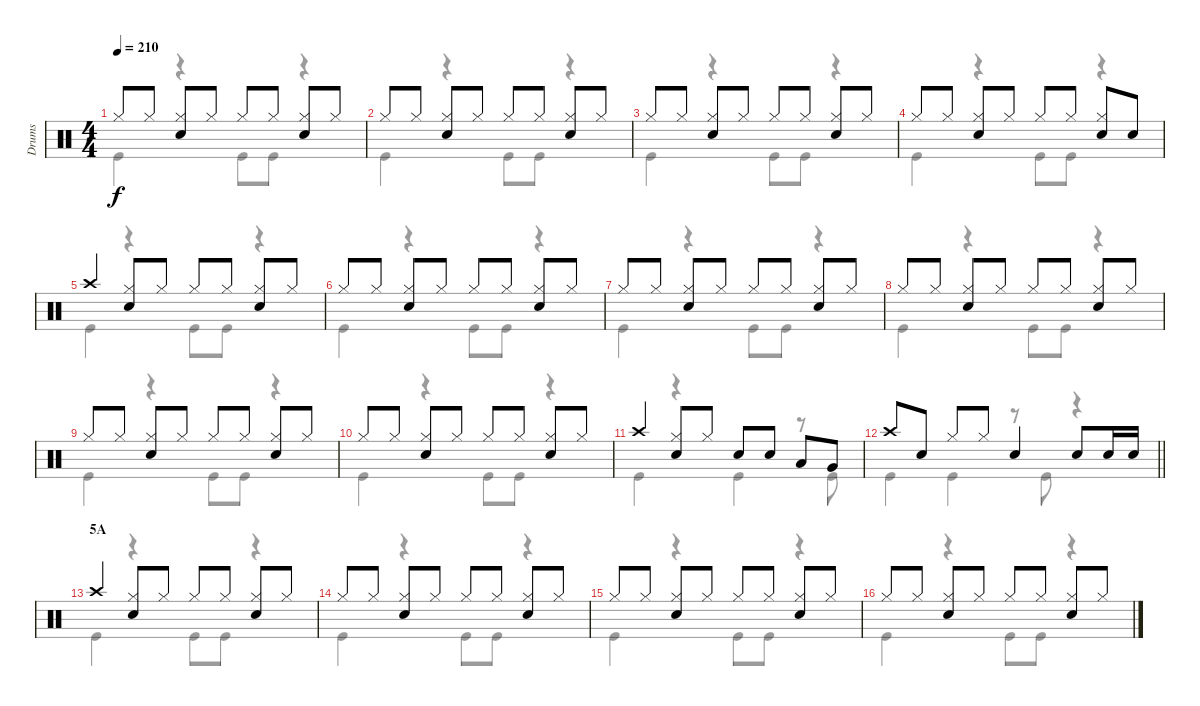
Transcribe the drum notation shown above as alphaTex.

\track ("Drums" "Drums") {instrument percussion}
\staff {score}
\articulation defaults
\voice
\ts (4 4)
\tempo 210
\clef neutral
\ks c "Hi-Hat (closed)".8{dy f} "Hi-Hat (closed)".8
("Hi-Hat (closed)" "Snare (hit) 2").8 "Hi-Hat (closed)".8 "Hi-Hat (closed)".8 "Hi-Hat (closed)".8 ("Hi-Hat (closed)" "Snare (hit) 2").8 "Hi-Hat (closed)".8 |
"Hi-Hat (closed)".8 "Hi-Hat (closed)".8 ("Hi-Hat (closed)" "Snare (hit) 2").8 "Hi-Hat (closed)".8 "Hi-Hat (closed)".8 "Hi-Hat (closed)".8 ("Hi-Hat (closed)" "Snare (hit) 2").8 "Hi-Hat (closed)".8 |
"Hi-Hat (closed)".8 "Hi-Hat (closed)".8 ("Hi-Hat (closed)" "Snare (hit) 2").8 "Hi-Hat (closed)".8 "Hi-Hat (closed)".8 "Hi-Hat (closed)".8 ("Hi-Hat (closed)" "Snare (hit) 2").8 "Hi-Hat (closed)".8 |
"Hi-Hat (closed)".8 "Hi-Hat (closed)".8 ("Hi-Hat (closed)" "Snare (hit) 2").8 "Hi-Hat (closed)".8 "Hi-Hat (closed)".8 "Hi-Hat (closed)".8 ("Hi-Hat (closed)" "Snare (hit) 2").8 "Snare (hit) 2".8 |
"Crash high (hit)".4 ("Hi-Hat (closed)" "Snare (hit) 2").8 "Hi-Hat (closed)".8 "Hi-Hat (closed)".8 "Hi-Hat (closed)".8 ("Hi-Hat (closed)" "Snare (hit) 2").8 "Hi-Hat (closed)".8 |
"Hi-Hat (closed)".8 "Hi-Hat (closed)".8 ("Hi-Hat (closed)" "Snare (hit) 2").8 "Hi-Hat (closed)".8 "Hi-Hat (closed)".8 "Hi-Hat (closed)".8 ("Hi-Hat (closed)" "Snare (hit) 2").8 "Hi-Hat (closed)".8 |
"Hi-Hat (closed)".8 "Hi-Hat (closed)".8 ("Hi-Hat (closed)" "Snare (hit) 2").8 "Hi-Hat (closed)".8 "Hi-Hat (closed)".8 "Hi-Hat (closed)".8 ("Hi-Hat (closed)" "Snare (hit) 2").8 "Hi-Hat (closed)".8 |
"Hi-Hat (closed)".8 "Hi-Hat (closed)".8 ("Hi-Hat (closed)" "Snare (hit) 2").8 "Hi-Hat (closed)".8 "Hi-Hat (closed)".8 "Hi-Hat (closed)".8 ("Hi-Hat (closed)" "Snare (hit) 2").8 "Hi-Hat (closed)".8 |
"Hi-Hat (closed)".8 "Hi-Hat (closed)".8 ("Hi-Hat (closed)" "Snare (hit) 2").8 "Hi-Hat (closed)".8 "Hi-Hat (closed)".8 "Hi-Hat (closed)".8 ("Hi-Hat (closed)" "Snare (hit) 2").8 "Hi-Hat (closed)".8 |
"Hi-Hat (closed)".8 "Hi-Hat (closed)".8 ("Hi-Hat (closed)" "Snare (hit) 2").8 "Hi-Hat (closed)".8 "Hi-Hat (closed)".8 "Hi-Hat (closed)".8 ("Hi-Hat (closed)" "Snare (hit) 2").8 "Hi-Hat (closed)".8 |
"Crash high (hit)".4 ("Hi-Hat (closed)" "Snare (hit) 2").8 "Hi-Hat (closed)".8 "Snare (hit) 2".8 "Snare (hit) 2".8 "Low Tom (hit)".8 "Very Low Tom (hit)".8 |
\barLineRight lightlight "Crash high (hit)".8 "Snare (hit) 2".8 "Hi-Hat (closed)".8 "Hi-Hat (closed)".8 "Snare (hit) 2".4 "Snare (hit) 2".8 "Snare (hit) 2".16 "Snare (hit) 2".16
|
\section ("" "5A")
"Crash high (hit)".4 ("Hi-Hat (closed)" "Snare (hit) 2").8 "Hi-Hat (closed)".8 "Hi-Hat (closed)".8 "Hi-Hat (closed)".8 ("Hi-Hat (closed)" "Snare (hit) 2").8 "Hi-Hat (closed)".8 |
"Hi-Hat (closed)".8 "Hi-Hat (closed)".8 ("Hi-Hat (closed)" "Snare (hit) 2").8 "Hi-Hat (closed)".8 "Hi-Hat (closed)".8 "Hi-Hat (closed)".8 ("Hi-Hat (closed)" "Snare (hit) 2").8 "Hi-Hat (closed)".8 |
"Hi-Hat (closed)".8 "Hi-Hat (closed)".8 ("Hi-Hat (closed)" "Snare (hit) 2").8 "Hi-Hat (closed)".8 "Hi-Hat (closed)".8 "Hi-Hat (closed)".8 ("Hi-Hat (closed)" "Snare (hit) 2").8 "Hi-Hat (closed)".8 |
"Hi-Hat (closed)".8 "Hi-Hat (closed)".8 ("Hi-Hat (closed)" "Snare (hit) 2").8 "Hi-Hat (closed)".8 "Hi-Hat (closed)".8 "Hi-Hat (closed)".8 ("Hi-Hat (closed)" "Snare (hit) 2").8 "Hi-Hat (closed)".8
\voice
\clef neutral
\ottava regular
\simile none
\ks c "Kick (hit)".4{dy f}
r.4 "Kick (hit)".8 "Kick (hit)".8 r.4 |
"Kick (hit)".4 r.4 "Kick (hit)".8 "Kick (hit)".8 r.4 |
"Kick (hit)".4 r.4 "Kick (hit)".8 "Kick (hit)".8 r.4 |
"Kick (hit)".4 r.4 "Kick (hit)".8 "Kick (hit)".8 r.4 |
"Kick (hit)".4 r.4 "Kick (hit)".8 "Kick (hit)".8 r.4 |
"Kick (hit)".4 r.4 "Kick (hit)".8 "Kick (hit)".8 r.4 |
"Kick (hit)".4 r.4 "Kick (hit)".8 "Kick (hit)".8 r.4 |
"Kick (hit)".4 r.4 "Kick (hit)".8 "Kick (hit)".8 r.4 |
"Kick (hit)".4 r.4 "Kick (hit)".8 "Kick (hit)".8 r.4 |
"Kick (hit)".4 r.4 "Kick (hit)".8 "Kick (hit)".8 r.4 |
"Kick (hit)".4 r.4 "Kick (hit)".4 r.8 "Kick (hit)".8 |
\barLineRight lightlight "Kick (hit)".4 "Kick (hit)".4
r.8 "Kick (hit)".8 r.4 |
"Kick (hit)".4 r.4 "Kick (hit)".8 "Kick (hit)".8 r.4 |
"Kick (hit)".4 r.4 "Kick (hit)".8 "Kick (hit)".8 r.4 |
"Kick (hit)".4 r.4 "Kick (hit)".8 "Kick (hit)".8 r.4 |
"Kick (hit)".4 r.4 "Kick (hit)".8 "Kick (hit)".8 r.4
